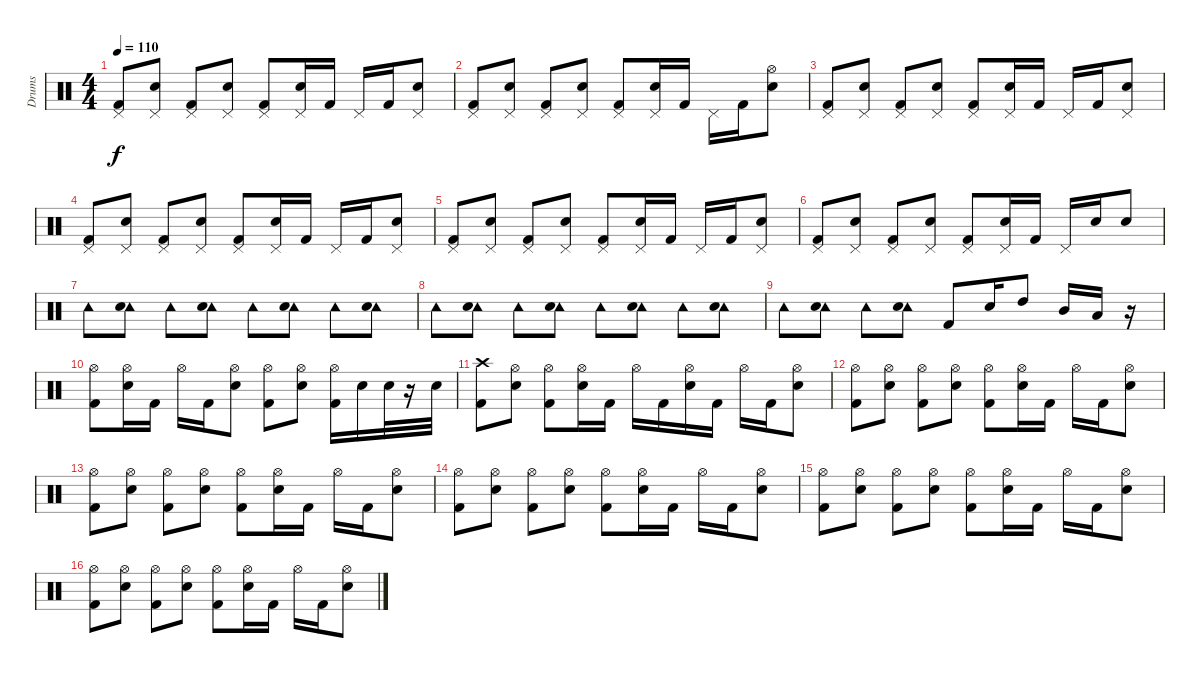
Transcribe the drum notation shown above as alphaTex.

\track ("Drums" "Drums") {instrument percussion}
\staff {score}
\articulation defaults
\ts (4 4)
\tempo 110
\clef neutral
\ks c
("Pedal Hi-Hat (hit)" "Kick (hit) 2").8{dy f} ("Pedal Hi-Hat (hit)" "Electric Snare (hit)").8 ("Pedal Hi-Hat (hit)" "Kick (hit) 2").8 ("Pedal Hi-Hat (hit)" "Electric Snare (hit)").8 ("Pedal Hi-Hat (hit)" "Kick (hit) 2").8 ("Pedal Hi-Hat (hit)" "Electric Snare (hit)").16 "Kick (hit) 2".16 "Pedal Hi-Hat (hit)".16 "Kick (hit) 2".16 ("Pedal Hi-Hat (hit)" "Electric Snare (hit)").8 |
("Pedal Hi-Hat (hit)" "Kick (hit) 2").8 ("Pedal Hi-Hat (hit)" "Electric Snare (hit)").8 ("Pedal Hi-Hat (hit)" "Kick (hit) 2").8 ("Pedal Hi-Hat (hit)" "Electric Snare (hit)").8 ("Pedal Hi-Hat (hit)" "Kick (hit) 2").8 ("Pedal Hi-Hat (hit)" "Electric Snare (hit)").16 "Kick (hit) 2".16 "Pedal Hi-Hat (hit)".16 "Kick (hit) 2".16 ("Hi-Hat (open)" "Electric Snare (hit)").8 |
("Pedal Hi-Hat (hit)" "Kick (hit) 2").8 ("Pedal Hi-Hat (hit)" "Electric Snare (hit)").8 ("Pedal Hi-Hat (hit)" "Kick (hit) 2").8 ("Pedal Hi-Hat (hit)" "Electric Snare (hit)").8 ("Pedal Hi-Hat (hit)" "Kick (hit) 2").8 ("Pedal Hi-Hat (hit)" "Electric Snare (hit)").16 "Kick (hit) 2".16 "Pedal Hi-Hat (hit)".16 "Kick (hit) 2".16 ("Pedal Hi-Hat (hit)" "Electric Snare (hit)").8 |
("Pedal Hi-Hat (hit)" "Kick (hit) 2").8 ("Pedal Hi-Hat (hit)" "Electric Snare (hit)").8 ("Pedal Hi-Hat (hit)" "Kick (hit) 2").8 ("Pedal Hi-Hat (hit)" "Electric Snare (hit)").8 ("Pedal Hi-Hat (hit)" "Kick (hit) 2").8 ("Pedal Hi-Hat (hit)" "Electric Snare (hit)").16 "Kick (hit) 2".16 "Pedal Hi-Hat (hit)".16 "Kick (hit) 2".16 ("Pedal Hi-Hat (hit)" "Electric Snare (hit)").8 |
("Pedal Hi-Hat (hit)" "Kick (hit) 2").8 ("Pedal Hi-Hat (hit)" "Electric Snare (hit)").8 ("Pedal Hi-Hat (hit)" "Kick (hit) 2").8 ("Pedal Hi-Hat (hit)" "Electric Snare (hit)").8 ("Pedal Hi-Hat (hit)" "Kick (hit) 2").8 ("Pedal Hi-Hat (hit)" "Electric Snare (hit)").16 "Kick (hit) 2".16 "Pedal Hi-Hat (hit)".16 "Kick (hit) 2".16 ("Pedal Hi-Hat (hit)" "Electric Snare (hit)").8 |
("Pedal Hi-Hat (hit)" "Kick (hit) 2").8 ("Pedal Hi-Hat (hit)" "Electric Snare (hit)").8 ("Pedal Hi-Hat (hit)" "Kick (hit) 2").8 ("Pedal Hi-Hat (hit)" "Electric Snare (hit)").8 ("Pedal Hi-Hat (hit)" "Kick (hit) 2").8 ("Pedal Hi-Hat (hit)" "Electric Snare (hit)").16 "Kick (hit) 2".16 "Pedal Hi-Hat (hit)".16 "Electric Snare (hit)".16 "Electric Snare (hit)".8 |
"Tambourine (hit)".8 ("Tambourine (hit)" "Hand Clap (hit)").8 "Tambourine (hit)".8 ("Tambourine (hit)" "Hand Clap (hit)").8 "Tambourine (hit)".8 ("Tambourine (hit)" "Hand Clap (hit)").8 "Tambourine (hit)".8 ("Tambourine (hit)" "Hand Clap (hit)").8 |
"Tambourine (hit)".8 ("Tambourine (hit)" "Hand Clap (hit)").8 "Tambourine (hit)".8 ("Tambourine (hit)" "Hand Clap (hit)").8 "Tambourine (hit)".8 ("Tambourine (hit)" "Hand Clap (hit)").8 "Tambourine (hit)".8 ("Tambourine (hit)" "Hand Clap (hit)").8 |
"Tambourine (hit)".8 ("Tambourine (hit)" "Hand Clap (hit)").8 "Tambourine (hit)".8 ("Tambourine (hit)" "Hand Clap (hit)").8 "Kick (hit) 2".8 "Electric Snare (hit)".16 "High Tom (hit)".8 "Mid Tom (hit)".16 "Low Tom (hit)".16 r.16 |
("Hi-Hat (open)" "Kick (hit) 2").8 ("Hi-Hat (open)" "Electric Snare (hit)").16 "Kick (hit) 2".16 "Hi-Hat (open)".16 "Kick (hit) 2".16 ("Hi-Hat (open)" "Electric Snare (hit)").8 ("Hi-Hat (open)" "Kick (hit) 2").8 ("Hi-Hat (open)" "Electric Snare (hit)").8 ("Hi-Hat (open)" "Kick (hit) 2").16 "Electric Snare (hit)".16 "Electric Snare (hit)".32 r.16 "Electric Snare (hit)".32 |
("Crash high (hit)" "Kick (hit) 2").8 ("Hi-Hat (open)" "Electric Snare (hit)").8 ("Hi-Hat (open)" "Kick (hit) 2").8 ("Hi-Hat (open)" "Electric Snare (hit)").16 "Kick (hit) 2".16 "Hi-Hat (open)".16 "Kick (hit) 2".16 ("Hi-Hat (open)" "Electric Snare (hit)").16 "Kick (hit) 2".16 "Hi-Hat (open)".16 "Kick (hit) 2".16 ("Hi-Hat (open)" "Electric Snare (hit)").8 |
("Hi-Hat (open)" "Kick (hit) 2").8 ("Hi-Hat (open)" "Electric Snare (hit)").8 ("Hi-Hat (open)" "Kick (hit) 2").8 ("Hi-Hat (open)" "Electric Snare (hit)").8 ("Hi-Hat (open)" "Kick (hit) 2").8 ("Hi-Hat (open)" "Electric Snare (hit)").16 "Kick (hit) 2".16 "Hi-Hat (open)".16 "Kick (hit) 2".16 ("Hi-Hat (open)" "Electric Snare (hit)").8 |
("Hi-Hat (open)" "Kick (hit) 2").8 ("Hi-Hat (open)" "Electric Snare (hit)").8 ("Hi-Hat (open)" "Kick (hit) 2").8 ("Hi-Hat (open)" "Electric Snare (hit)").8 ("Hi-Hat (open)" "Kick (hit) 2").8 ("Hi-Hat (open)" "Electric Snare (hit)").16 "Kick (hit) 2".16 "Hi-Hat (open)".16 "Kick (hit) 2".16 ("Hi-Hat (open)" "Electric Snare (hit)").8 |
("Hi-Hat (open)" "Kick (hit) 2").8 ("Hi-Hat (open)" "Electric Snare (hit)").8 ("Hi-Hat (open)" "Kick (hit) 2").8 ("Hi-Hat (open)" "Electric Snare (hit)").8 ("Hi-Hat (open)" "Kick (hit) 2").8 ("Hi-Hat (open)" "Electric Snare (hit)").16 "Kick (hit) 2".16 "Hi-Hat (open)".16 "Kick (hit) 2".16 ("Hi-Hat (open)" "Electric Snare (hit)").8 |
("Hi-Hat (open)" "Kick (hit) 2").8 ("Hi-Hat (open)" "Electric Snare (hit)").8 ("Hi-Hat (open)" "Kick (hit) 2").8 ("Hi-Hat (open)" "Electric Snare (hit)").8 ("Hi-Hat (open)" "Kick (hit) 2").8 ("Hi-Hat (open)" "Electric Snare (hit)").16 "Kick (hit) 2".16 "Hi-Hat (open)".16 "Kick (hit) 2".16 ("Hi-Hat (open)" "Electric Snare (hit)").8 |
("Hi-Hat (open)" "Kick (hit) 2").8 ("Hi-Hat (open)" "Electric Snare (hit)").8 ("Hi-Hat (open)" "Kick (hit) 2").8 ("Hi-Hat (open)" "Electric Snare (hit)").8 ("Hi-Hat (open)" "Kick (hit) 2").8 ("Hi-Hat (open)" "Electric Snare (hit)").16 "Kick (hit) 2".16 "Hi-Hat (open)".16 "Kick (hit) 2".16 ("Hi-Hat (open)" "Electric Snare (hit)").8
